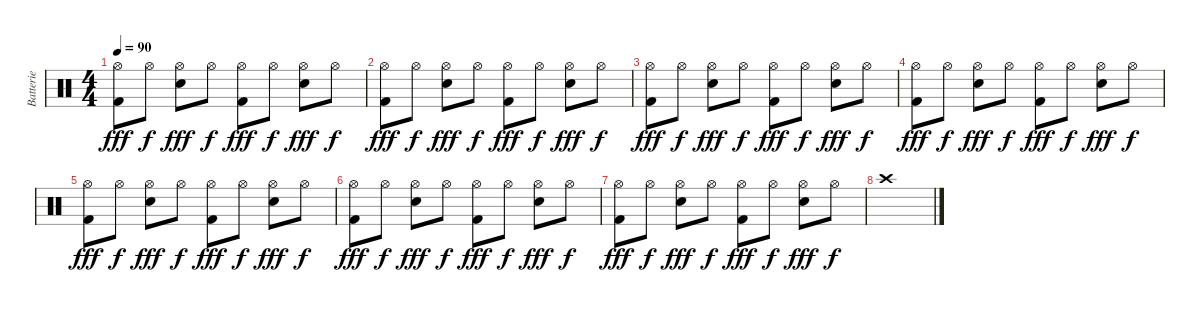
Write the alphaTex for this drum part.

\track ("Batterie" "Batterie") {instrument percussion}
\staff {score}
\articulation defaults
\ts (4 4)
\tempo 90
\clef neutral
\ks c
("Hi-Hat (open)" "Kick (hit) 2").8{dy fff} "Hi-Hat (open)".8{dy f} ("Hi-Hat (open)" "Snare (hit) 2").8{dy fff} "Hi-Hat (open)".8{dy f} ("Hi-Hat (open)" "Kick (hit) 2").8{dy fff} "Hi-Hat (open)".8{dy f} ("Hi-Hat (open)" "Snare (hit) 2").8{dy fff} "Hi-Hat (open)".8{dy f} |
("Hi-Hat (open)" "Kick (hit) 2").8{dy fff} "Hi-Hat (open)".8{dy f} ("Hi-Hat (open)" "Snare (hit) 2").8{dy fff} "Hi-Hat (open)".8{dy f} ("Hi-Hat (open)" "Kick (hit) 2").8{dy fff} "Hi-Hat (open)".8{dy f} ("Hi-Hat (open)" "Snare (hit) 2").8{dy fff} "Hi-Hat (open)".8{dy f} |
("Hi-Hat (open)" "Kick (hit) 2").8{dy fff} "Hi-Hat (open)".8{dy f} ("Hi-Hat (open)" "Snare (hit) 2").8{dy fff} "Hi-Hat (open)".8{dy f} ("Hi-Hat (open)" "Kick (hit) 2").8{dy fff} "Hi-Hat (open)".8{dy f} ("Hi-Hat (open)" "Snare (hit) 2").8{dy fff} "Hi-Hat (open)".8{dy f} |
("Hi-Hat (open)" "Kick (hit) 2").8{dy fff} "Hi-Hat (open)".8{dy f} ("Hi-Hat (open)" "Snare (hit) 2").8{dy fff} "Hi-Hat (open)".8{dy f} ("Hi-Hat (open)" "Kick (hit) 2").8{dy fff} "Hi-Hat (open)".8{dy f} ("Hi-Hat (open)" "Snare (hit) 2").8{dy fff} "Hi-Hat (open)".8{dy f} |
("Hi-Hat (open)" "Kick (hit) 2").8{dy fff} "Hi-Hat (open)".8{dy f} ("Hi-Hat (open)" "Snare (hit) 2").8{dy fff} "Hi-Hat (open)".8{dy f} ("Hi-Hat (open)" "Kick (hit) 2").8{dy fff} "Hi-Hat (open)".8{dy f} ("Hi-Hat (open)" "Snare (hit) 2").8{dy fff} "Hi-Hat (open)".8{dy f} |
("Hi-Hat (open)" "Kick (hit) 2").8{dy fff} "Hi-Hat (open)".8{dy f} ("Hi-Hat (open)" "Snare (hit) 2").8{dy fff} "Hi-Hat (open)".8{dy f} ("Hi-Hat (open)" "Kick (hit) 2").8{dy fff} "Hi-Hat (open)".8{dy f} ("Hi-Hat (open)" "Snare (hit) 2").8{dy fff} "Hi-Hat (open)".8{dy f} |
("Hi-Hat (open)" "Kick (hit) 2").8{dy fff} "Hi-Hat (open)".8{dy f} ("Hi-Hat (open)" "Snare (hit) 2").8{dy fff} "Hi-Hat (open)".8{dy f} ("Hi-Hat (open)" "Kick (hit) 2").8{dy fff} "Hi-Hat (open)".8{dy f} ("Hi-Hat (open)" "Snare (hit) 2").8{dy fff} "Hi-Hat (open)".8{dy f} |
"Crash high (hit)".1
